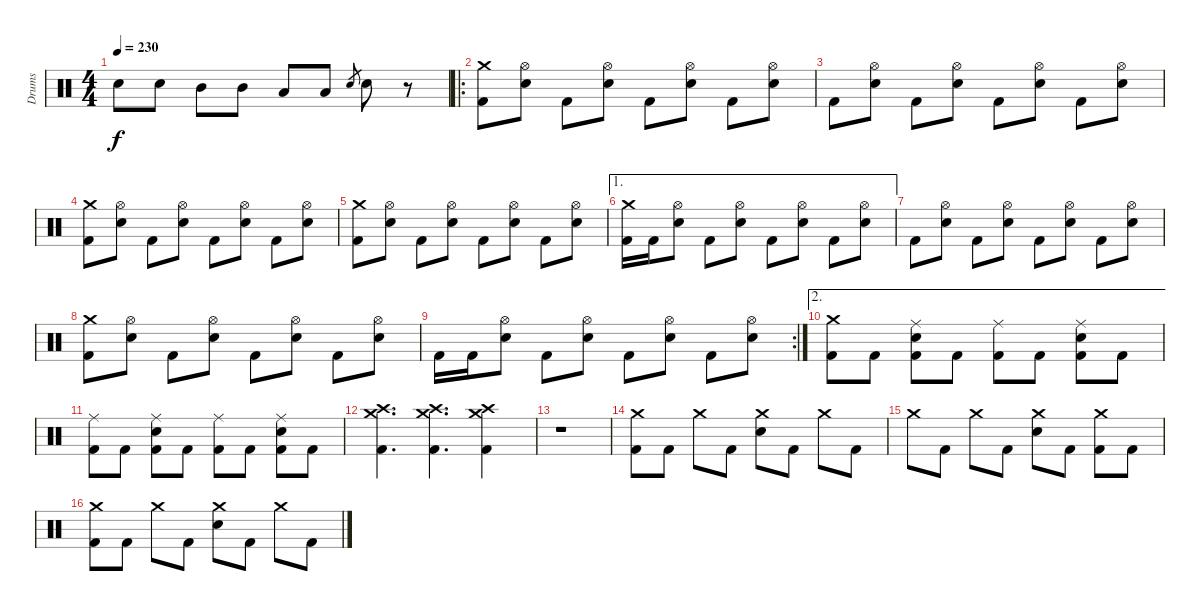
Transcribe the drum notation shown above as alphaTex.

\track ("Drums" "Drums") {instrument percussion}
\staff {score}
\articulation defaults
\ts (4 4)
\tempo 230
\clef neutral
\ks c "Electric Snare (hit)".8{dy f} "Electric Snare (hit)".8 "Mid Tom (hit)".8 "Mid Tom (hit)".8 "Low Tom (hit)".8 "Low Tom (hit)".8 "Electric Snare (hit)".8{gr} "Electric Snare (hit)".8
r.8 |
\ro
("Kick (hit) 2" "Crash medium (hit)").8 ("Electric Snare (hit)" "Hi-Hat (open)").8 "Kick (hit) 2".8 ("Electric Snare (hit)" "Hi-Hat (open)").8 "Kick (hit) 2".8 ("Electric Snare (hit)" "Hi-Hat (open)").8 "Kick (hit) 2".8 ("Electric Snare (hit)" "Hi-Hat (open)").8 |
"Kick (hit) 2".8 ("Electric Snare (hit)" "Hi-Hat (open)").8 "Kick (hit) 2".8 ("Electric Snare (hit)" "Hi-Hat (open)").8 "Kick (hit) 2".8 ("Electric Snare (hit)" "Hi-Hat (open)").8 "Kick (hit) 2".8 ("Electric Snare (hit)" "Hi-Hat (open)").8 |
("Kick (hit) 2" "Crash medium (hit)").8 ("Electric Snare (hit)" "Hi-Hat (open)").8 "Kick (hit) 2".8 ("Electric Snare (hit)" "Hi-Hat (open)").8 "Kick (hit) 2".8 ("Electric Snare (hit)" "Hi-Hat (open)").8 "Kick (hit) 2".8 ("Electric Snare (hit)" "Hi-Hat (open)").8 |
("Kick (hit) 2" "Crash medium (hit)").8 ("Electric Snare (hit)" "Hi-Hat (open)").8 "Kick (hit) 2".8 ("Electric Snare (hit)" "Hi-Hat (open)").8 "Kick (hit) 2".8 ("Electric Snare (hit)" "Hi-Hat (open)").8 "Kick (hit) 2".8 ("Electric Snare (hit)" "Hi-Hat (open)").8 |
\ae 1
("Kick (hit) 2" "Crash medium (hit)").16 "Kick (hit) 2".16 ("Electric Snare (hit)" "Hi-Hat (open)").8 "Kick (hit) 2".8 ("Electric Snare (hit)" "Hi-Hat (open)").8 "Kick (hit) 2".8 ("Electric Snare (hit)" "Hi-Hat (open)").8 "Kick (hit) 2".8 ("Electric Snare (hit)" "Hi-Hat (open)").8 |
"Kick (hit) 2".8 ("Electric Snare (hit)" "Hi-Hat (open)").8 "Kick (hit) 2".8 ("Electric Snare (hit)" "Hi-Hat (open)").8 "Kick (hit) 2".8 ("Electric Snare (hit)" "Hi-Hat (open)").8 "Kick (hit) 2".8 ("Electric Snare (hit)" "Hi-Hat (open)").8 |
("Kick (hit) 2" "Crash medium (hit)").8 ("Electric Snare (hit)" "Hi-Hat (open)").8 "Kick (hit) 2".8 ("Electric Snare (hit)" "Hi-Hat (open)").8 "Kick (hit) 2".8 ("Electric Snare (hit)" "Hi-Hat (open)").8 "Kick (hit) 2".8 ("Electric Snare (hit)" "Hi-Hat (open)").8 |
\rc 2 "Kick (hit) 2".16 "Kick (hit) 2".16
("Electric Snare (hit)" "Hi-Hat (open)").8 "Kick (hit) 2".8 ("Electric Snare (hit)" "Hi-Hat (open)").8 "Kick (hit) 2".8 ("Electric Snare (hit)" "Hi-Hat (open)").8 "Kick (hit) 2".8 ("Electric Snare (hit)" "Hi-Hat (open)").8 |
\ae 2
("Kick (hit) 2" "Crash medium (hit)").8 "Kick (hit) 2".8 ("Kick (hit) 2" "Electric Snare (hit)" "Ride (middle)").8 "Kick (hit) 2".8 ("Kick (hit) 2" "Ride (middle)").8 "Kick (hit) 2".8 ("Kick (hit) 2" "Electric Snare (hit)" "Ride (middle)").8 "Kick (hit) 2".8 |
("Kick (hit) 2" "Ride (middle)").8 "Kick (hit) 2".8 ("Kick (hit) 2" "Electric Snare (hit)" "Ride (middle)").8 "Kick (hit) 2".8 ("Kick (hit) 2" "Ride (middle)").8 "Kick (hit) 2".8 ("Kick (hit) 2" "Electric Snare (hit)" "Ride (middle)").8 "Kick (hit) 2".8 |
("Kick (hit) 2" "Crash medium (hit)" "Crash high (hit)").4{d} ("Kick (hit) 2" "Crash medium (hit)" "Crash high (hit)").4{d} ("Kick (hit) 2" "Crash medium (hit)" "Crash high (hit)").4 |
r.1 |
("Kick (hit) 2" "Crash medium (hit)").8 "Kick (hit) 2".8 "Crash medium (hit)".8 "Kick (hit) 2".8 ("Electric Snare (hit)" "Crash medium (hit)").8 "Kick (hit) 2".8 "Crash medium (hit)".8 "Kick (hit) 2".8 |
"Crash medium (hit)".8 "Kick (hit) 2".8 "Crash medium (hit)".8 "Kick (hit) 2".8 ("Electric Snare (hit)" "Crash medium (hit)").8 "Kick (hit) 2".8 ("Kick (hit) 2" "Crash medium (hit)").8 "Kick (hit) 2".8 |
("Kick (hit) 2" "Crash medium (hit)").8 "Kick (hit) 2".8 "Crash medium (hit)".8 "Kick (hit) 2".8 ("Electric Snare (hit)" "Crash medium (hit)").8 "Kick (hit) 2".8 "Crash medium (hit)".8 "Kick (hit) 2".8
